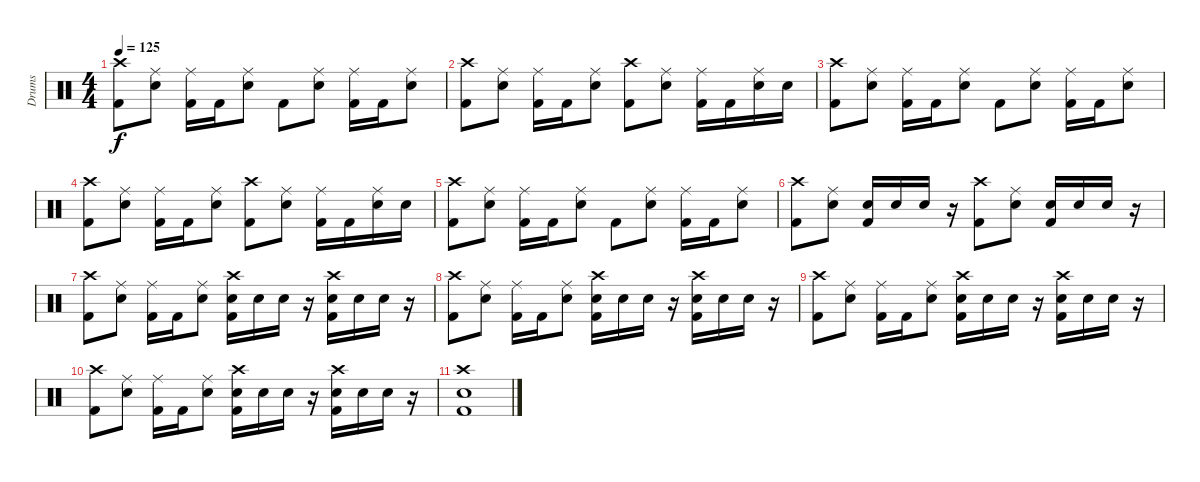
\track ("Drums" "Drums") {instrument percussion}
\staff {score}
\articulation defaults
\ts (4 4)
\tempo 125
\clef neutral
\ks c
("Crash high (hit)" "Kick (hit) 2").8{dy f} ("Ride (middle)" "Electric Snare (hit)").8 ("Ride (middle)" "Kick (hit) 2").16 "Kick (hit) 2".16 ("Ride (middle)" "Electric Snare (hit)").8 "Kick (hit) 2".8 ("Ride (middle)" "Electric Snare (hit)").8 ("Ride (middle)" "Kick (hit) 2").16 "Kick (hit) 2".16 ("Ride (middle)" "Electric Snare (hit)").8 |
("Crash high (hit)" "Kick (hit) 2").8 ("Ride (middle)" "Electric Snare (hit)").8 ("Ride (middle)" "Kick (hit) 2").16 "Kick (hit) 2".16 ("Ride (middle)" "Electric Snare (hit)").8 ("Crash high (hit)" "Kick (hit) 2").8 ("Ride (middle)" "Electric Snare (hit)").8 ("Ride (middle)" "Kick (hit) 2").16 "Kick (hit) 2".16 ("Ride (middle)" "Electric Snare (hit)").16 "Electric Snare (hit)".16 |
("Crash high (hit)" "Kick (hit) 2").8 ("Ride (middle)" "Electric Snare (hit)").8 ("Ride (middle)" "Kick (hit) 2").16 "Kick (hit) 2".16 ("Ride (middle)" "Electric Snare (hit)").8 "Kick (hit) 2".8 ("Ride (middle)" "Electric Snare (hit)").8 ("Ride (middle)" "Kick (hit) 2").16 "Kick (hit) 2".16 ("Ride (middle)" "Electric Snare (hit)").8 |
("Crash high (hit)" "Kick (hit) 2").8 ("Ride (middle)" "Electric Snare (hit)").8 ("Ride (middle)" "Kick (hit) 2").16 "Kick (hit) 2".16 ("Ride (middle)" "Electric Snare (hit)").8 ("Crash high (hit)" "Kick (hit) 2").8 ("Ride (middle)" "Electric Snare (hit)").8 ("Ride (middle)" "Kick (hit) 2").16 "Kick (hit) 2".16 ("Ride (middle)" "Electric Snare (hit)").16 "Electric Snare (hit)".16 |
("Crash high (hit)" "Kick (hit) 2").8 ("Ride (middle)" "Electric Snare (hit)").8 ("Ride (middle)" "Kick (hit) 2").16 "Kick (hit) 2".16 ("Ride (middle)" "Electric Snare (hit)").8 "Kick (hit) 2".8 ("Ride (middle)" "Electric Snare (hit)").8 ("Ride (middle)" "Kick (hit) 2").16 "Kick (hit) 2".16 ("Ride (middle)" "Electric Snare (hit)").8 |
("Crash high (hit)" "Kick (hit) 2").8 ("Ride (middle)" "Electric Snare (hit)").8 ("Electric Snare (hit)" "Kick (hit) 2").16 "Electric Snare (hit)".16 "Electric Snare (hit)".16 r.16 ("Crash high (hit)" "Kick (hit) 2").8 ("Ride (middle)" "Electric Snare (hit)").8 ("Electric Snare (hit)" "Kick (hit) 2").16 "Electric Snare (hit)".16 "Electric Snare (hit)".16 r.16 |
("Crash high (hit)" "Kick (hit) 2").8 ("Ride (middle)" "Electric Snare (hit)").8 ("Ride (middle)" "Kick (hit) 2").16 "Kick (hit) 2".16 ("Ride (middle)" "Electric Snare (hit)").8 ("Crash high (hit)" "Electric Snare (hit)" "Kick (hit) 2").16 "Electric Snare (hit)".16 "Electric Snare (hit)".16 r.16 ("Crash high (hit)" "Electric Snare (hit)" "Kick (hit) 2").16 "Electric Snare (hit)".16 "Electric Snare (hit)".16 r.16 |
("Crash high (hit)" "Kick (hit) 2").8 ("Ride (middle)" "Electric Snare (hit)").8 ("Ride (middle)" "Kick (hit) 2").16 "Kick (hit) 2".16 ("Ride (middle)" "Electric Snare (hit)").8 ("Crash high (hit)" "Electric Snare (hit)" "Kick (hit) 2").16 "Electric Snare (hit)".16 "Electric Snare (hit)".16 r.16 ("Crash high (hit)" "Electric Snare (hit)" "Kick (hit) 2").16 "Electric Snare (hit)".16 "Electric Snare (hit)".16 r.16 |
("Crash high (hit)" "Kick (hit) 2").8 ("Ride (middle)" "Electric Snare (hit)").8 ("Ride (middle)" "Kick (hit) 2").16 "Kick (hit) 2".16 ("Ride (middle)" "Electric Snare (hit)").8 ("Crash high (hit)" "Electric Snare (hit)" "Kick (hit) 2").16 "Electric Snare (hit)".16 "Electric Snare (hit)".16 r.16 ("Crash high (hit)" "Electric Snare (hit)" "Kick (hit) 2").16 "Electric Snare (hit)".16 "Electric Snare (hit)".16 r.16 |
("Crash high (hit)" "Kick (hit) 2").8 ("Ride (middle)" "Electric Snare (hit)").8 ("Ride (middle)" "Kick (hit) 2").16 "Kick (hit) 2".16 ("Ride (middle)" "Electric Snare (hit)").8 ("Crash high (hit)" "Electric Snare (hit)" "Kick (hit) 2").16 "Electric Snare (hit)".16 "Electric Snare (hit)".16 r.16 ("Crash high (hit)" "Electric Snare (hit)" "Kick (hit) 2").16 "Electric Snare (hit)".16 "Electric Snare (hit)".16 r.16 |
("Crash high (hit)" "Electric Snare (hit)" "Kick (hit) 2").1
